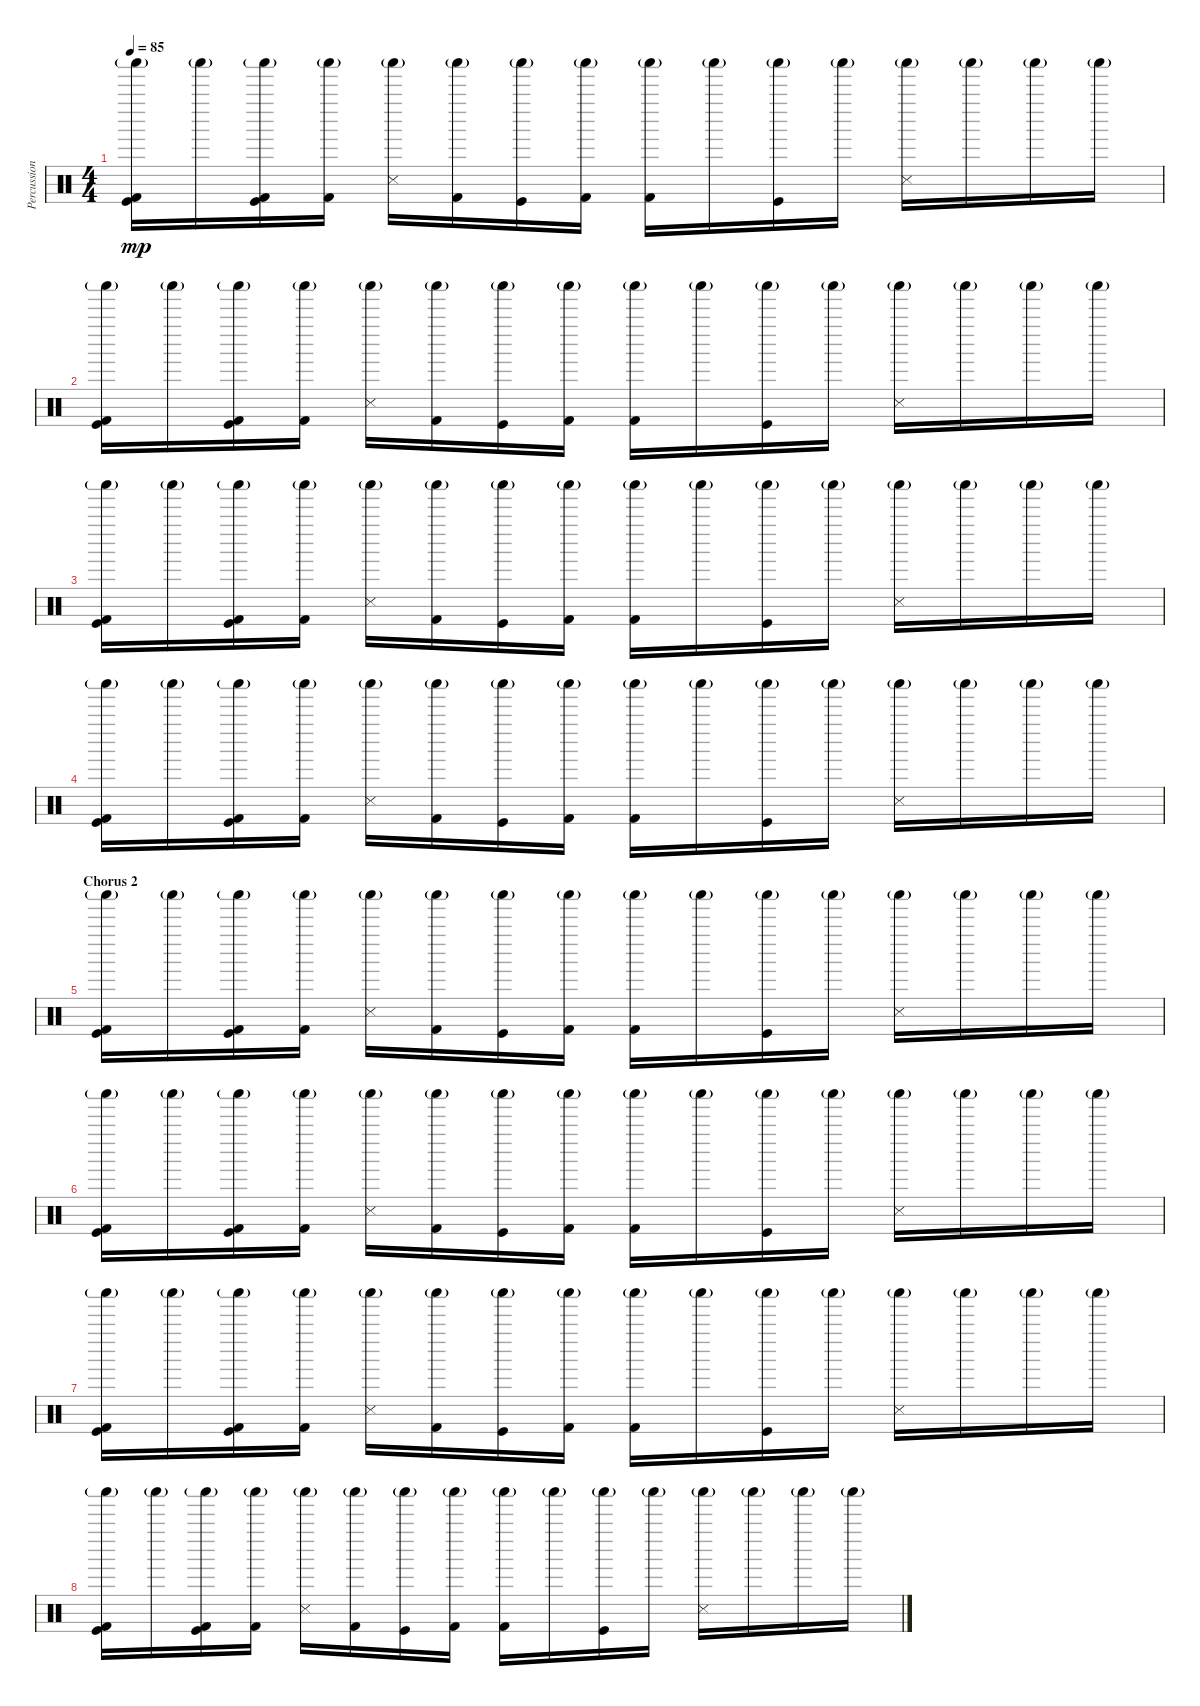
\track ("Percussions" "Percussion") {instrument percussion}
\staff {score}
\articulation defaults
\ts (4 4)
\tempo 85
\clef neutral
\ks c
("Shaker (hit)"{g} "Kick (hit) 2" "Kick (hit)").16{dy mp} "Shaker (hit)"{g}.16 ("Shaker (hit)"{g} "Kick (hit) 2" "Kick (hit)").16 ("Shaker (hit)"{g} "Kick (hit) 2").16 ("Shaker (hit)"{g} "Snare (side stick) 3").16 ("Shaker (hit)"{g} "Kick (hit) 2").16 ("Shaker (hit)"{g} "Kick (hit)").16 ("Shaker (hit)"{g} "Kick (hit) 2").16 ("Shaker (hit)"{g} "Kick (hit) 2").16 "Shaker (hit)"{g}.16 ("Shaker (hit)"{g} "Kick (hit)").16 "Shaker (hit)"{g}.16 ("Shaker (hit)"{g} "Snare (side stick) 3").16 "Shaker (hit)"{g}.16 "Shaker (hit)"{g}.16 "Shaker (hit)"{g}.16 |
("Shaker (hit)"{g} "Kick (hit) 2" "Kick (hit)").16 "Shaker (hit)"{g}.16 ("Shaker (hit)"{g} "Kick (hit) 2" "Kick (hit)").16 ("Shaker (hit)"{g} "Kick (hit) 2").16 ("Shaker (hit)"{g} "Snare (side stick) 3").16 ("Shaker (hit)"{g} "Kick (hit) 2").16 ("Shaker (hit)"{g} "Kick (hit)").16 ("Shaker (hit)"{g} "Kick (hit) 2").16 ("Shaker (hit)"{g} "Kick (hit) 2").16 "Shaker (hit)"{g}.16 ("Shaker (hit)"{g} "Kick (hit)").16 "Shaker (hit)"{g}.16 ("Shaker (hit)"{g} "Snare (side stick) 3").16 "Shaker (hit)"{g}.16 "Shaker (hit)"{g}.16 "Shaker (hit)"{g}.16 |
("Shaker (hit)"{g} "Kick (hit) 2" "Kick (hit)").16 "Shaker (hit)"{g}.16 ("Shaker (hit)"{g} "Kick (hit) 2" "Kick (hit)").16 ("Shaker (hit)"{g} "Kick (hit) 2").16 ("Shaker (hit)"{g} "Snare (side stick) 3").16 ("Shaker (hit)"{g} "Kick (hit) 2").16 ("Shaker (hit)"{g} "Kick (hit)").16 ("Shaker (hit)"{g} "Kick (hit) 2").16 ("Shaker (hit)"{g} "Kick (hit) 2").16 "Shaker (hit)"{g}.16 ("Shaker (hit)"{g} "Kick (hit)").16 "Shaker (hit)"{g}.16 ("Shaker (hit)"{g} "Snare (side stick) 3").16 "Shaker (hit)"{g}.16 "Shaker (hit)"{g}.16 "Shaker (hit)"{g}.16 |
("Shaker (hit)"{g} "Kick (hit) 2" "Kick (hit)").16 "Shaker (hit)"{g}.16 ("Shaker (hit)"{g} "Kick (hit) 2" "Kick (hit)").16 ("Shaker (hit)"{g} "Kick (hit) 2").16 ("Shaker (hit)"{g} "Snare (side stick) 3").16 ("Shaker (hit)"{g} "Kick (hit) 2").16 ("Shaker (hit)"{g} "Kick (hit)").16 ("Shaker (hit)"{g} "Kick (hit) 2").16 ("Shaker (hit)"{g} "Kick (hit) 2").16 "Shaker (hit)"{g}.16 ("Shaker (hit)"{g} "Kick (hit)").16 "Shaker (hit)"{g}.16 ("Shaker (hit)"{g} "Snare (side stick) 3").16 "Shaker (hit)"{g}.16 "Shaker (hit)"{g}.16 "Shaker (hit)"{g}.16 |
\section ("" "Chorus 2")
("Shaker (hit)"{g} "Kick (hit) 2" "Kick (hit)").16 "Shaker (hit)"{g}.16 ("Shaker (hit)"{g} "Kick (hit) 2" "Kick (hit)").16 ("Shaker (hit)"{g} "Kick (hit) 2").16 ("Shaker (hit)"{g} "Snare (side stick) 3").16 ("Shaker (hit)"{g} "Kick (hit) 2").16 ("Shaker (hit)"{g} "Kick (hit)").16 ("Shaker (hit)"{g} "Kick (hit) 2").16 ("Shaker (hit)"{g} "Kick (hit) 2").16 "Shaker (hit)"{g}.16 ("Shaker (hit)"{g} "Kick (hit)").16 "Shaker (hit)"{g}.16 ("Shaker (hit)"{g} "Snare (side stick) 3").16 "Shaker (hit)"{g}.16 "Shaker (hit)"{g}.16 "Shaker (hit)"{g}.16 |
("Shaker (hit)"{g} "Kick (hit) 2" "Kick (hit)").16 "Shaker (hit)"{g}.16 ("Shaker (hit)"{g} "Kick (hit) 2" "Kick (hit)").16 ("Shaker (hit)"{g} "Kick (hit) 2").16 ("Shaker (hit)"{g} "Snare (side stick) 3").16 ("Shaker (hit)"{g} "Kick (hit) 2").16 ("Shaker (hit)"{g} "Kick (hit)").16 ("Shaker (hit)"{g} "Kick (hit) 2").16 ("Shaker (hit)"{g} "Kick (hit) 2").16 "Shaker (hit)"{g}.16 ("Shaker (hit)"{g} "Kick (hit)").16 "Shaker (hit)"{g}.16 ("Shaker (hit)"{g} "Snare (side stick) 3").16 "Shaker (hit)"{g}.16 "Shaker (hit)"{g}.16 "Shaker (hit)"{g}.16 |
("Shaker (hit)"{g} "Kick (hit) 2" "Kick (hit)").16 "Shaker (hit)"{g}.16 ("Shaker (hit)"{g} "Kick (hit) 2" "Kick (hit)").16 ("Shaker (hit)"{g} "Kick (hit) 2").16 ("Shaker (hit)"{g} "Snare (side stick) 3").16 ("Shaker (hit)"{g} "Kick (hit) 2").16 ("Shaker (hit)"{g} "Kick (hit)").16 ("Shaker (hit)"{g} "Kick (hit) 2").16 ("Shaker (hit)"{g} "Kick (hit) 2").16 "Shaker (hit)"{g}.16 ("Shaker (hit)"{g} "Kick (hit)").16 "Shaker (hit)"{g}.16 ("Shaker (hit)"{g} "Snare (side stick) 3").16 "Shaker (hit)"{g}.16 "Shaker (hit)"{g}.16 "Shaker (hit)"{g}.16 |
("Shaker (hit)"{g} "Kick (hit) 2" "Kick (hit)").16 "Shaker (hit)"{g}.16 ("Shaker (hit)"{g} "Kick (hit) 2" "Kick (hit)").16 ("Shaker (hit)"{g} "Kick (hit) 2").16 ("Shaker (hit)"{g} "Snare (side stick) 3").16 ("Shaker (hit)"{g} "Kick (hit) 2").16 ("Shaker (hit)"{g} "Kick (hit)").16 ("Shaker (hit)"{g} "Kick (hit) 2").16 ("Shaker (hit)"{g} "Kick (hit) 2").16 "Shaker (hit)"{g}.16 ("Shaker (hit)"{g} "Kick (hit)").16 "Shaker (hit)"{g}.16 ("Shaker (hit)"{g} "Snare (side stick) 3").16 "Shaker (hit)"{g}.16 "Shaker (hit)"{g}.16 "Shaker (hit)"{g}.16
